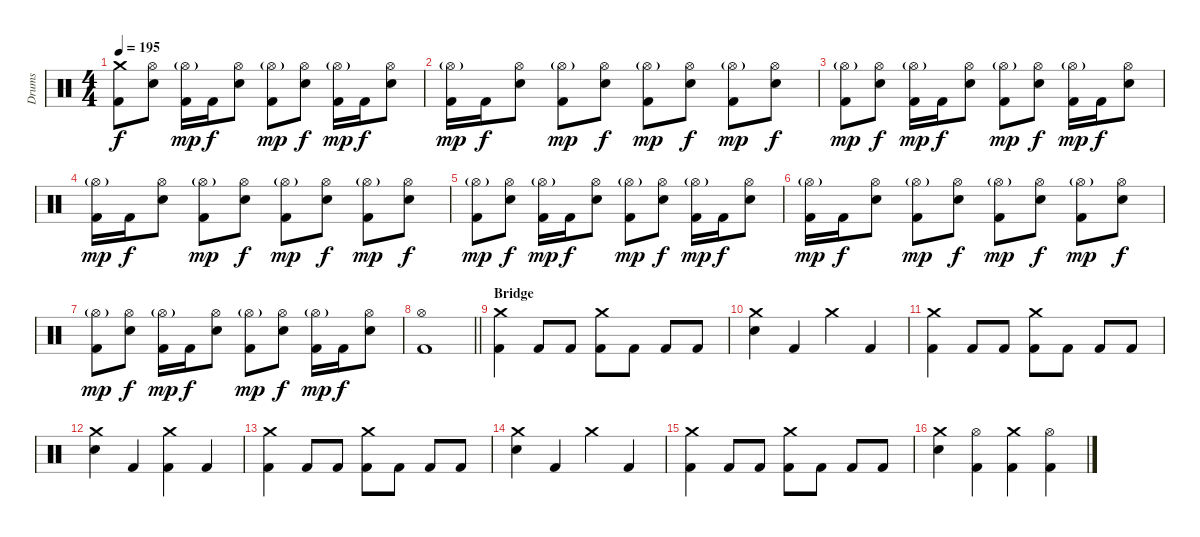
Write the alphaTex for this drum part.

\track ("Drums" "Drums") {instrument percussion}
\staff {score}
\articulation defaults
\ts (4 4)
\tempo 195
\clef neutral
\ks c
("Crash medium (hit)" "Kick (hit) 2").8{dy f} ("Hi-Hat (open)" "Snare (hit) 2").8 ("Hi-Hat (open)"{g} "Kick (hit) 2").16{dy mp} "Kick (hit) 2".16{dy f} ("Hi-Hat (open)" "Snare (hit) 2").8 ("Hi-Hat (open)"{g} "Kick (hit) 2").8{dy mp} ("Hi-Hat (open)" "Snare (hit) 2").8{dy f} ("Hi-Hat (open)"{g} "Kick (hit) 2").16{dy mp} "Kick (hit) 2".16{dy f} ("Hi-Hat (open)" "Snare (hit) 2").8 |
("Hi-Hat (open)"{g} "Kick (hit) 2").16{dy mp} "Kick (hit) 2".16{dy f} ("Hi-Hat (open)" "Snare (hit) 2").8 ("Hi-Hat (open)"{g} "Kick (hit) 2").8{dy mp} ("Hi-Hat (open)" "Snare (hit) 2").8{dy f} ("Hi-Hat (open)"{g} "Kick (hit) 2").8{dy mp} ("Hi-Hat (open)" "Snare (hit) 2").8{dy f} ("Hi-Hat (open)"{g} "Kick (hit) 2").8{dy mp} ("Hi-Hat (open)" "Snare (hit) 2").8{dy f} |
("Hi-Hat (open)"{g} "Kick (hit) 2").8{dy mp} ("Hi-Hat (open)" "Snare (hit) 2").8{dy f} ("Hi-Hat (open)"{g} "Kick (hit) 2").16{dy mp} "Kick (hit) 2".16{dy f} ("Hi-Hat (open)" "Snare (hit) 2").8 ("Hi-Hat (open)"{g} "Kick (hit) 2").8{dy mp} ("Hi-Hat (open)" "Snare (hit) 2").8{dy f} ("Hi-Hat (open)"{g} "Kick (hit) 2").16{dy mp} "Kick (hit) 2".16{dy f} ("Hi-Hat (open)" "Snare (hit) 2").8 |
("Hi-Hat (open)"{g} "Kick (hit) 2").16{dy mp} "Kick (hit) 2".16{dy f} ("Hi-Hat (open)" "Snare (hit) 2").8 ("Hi-Hat (open)"{g} "Kick (hit) 2").8{dy mp} ("Hi-Hat (open)" "Snare (hit) 2").8{dy f} ("Hi-Hat (open)"{g} "Kick (hit) 2").8{dy mp} ("Hi-Hat (open)" "Snare (hit) 2").8{dy f} ("Hi-Hat (open)"{g} "Kick (hit) 2").8{dy mp} ("Hi-Hat (open)" "Snare (hit) 2").8{dy f} |
("Hi-Hat (open)"{g} "Kick (hit) 2").8{dy mp} ("Hi-Hat (open)" "Snare (hit) 2").8{dy f} ("Hi-Hat (open)"{g} "Kick (hit) 2").16{dy mp} "Kick (hit) 2".16{dy f} ("Hi-Hat (open)" "Snare (hit) 2").8 ("Hi-Hat (open)"{g} "Kick (hit) 2").8{dy mp} ("Hi-Hat (open)" "Snare (hit) 2").8{dy f} ("Hi-Hat (open)"{g} "Kick (hit) 2").16{dy mp} "Kick (hit) 2".16{dy f} ("Hi-Hat (open)" "Snare (hit) 2").8 |
("Hi-Hat (open)"{g} "Kick (hit) 2").16{dy mp} "Kick (hit) 2".16{dy f} ("Hi-Hat (open)" "Snare (hit) 2").8 ("Hi-Hat (open)"{g} "Kick (hit) 2").8{dy mp} ("Hi-Hat (open)" "Snare (hit) 2").8{dy f} ("Hi-Hat (open)"{g} "Kick (hit) 2").8{dy mp} ("Hi-Hat (open)" "Snare (hit) 2").8{dy f} ("Hi-Hat (open)"{g} "Kick (hit) 2").8{dy mp} ("Hi-Hat (open)" "Snare (hit) 2").8{dy f} |
("Hi-Hat (open)"{g} "Kick (hit) 2").8{dy mp} ("Hi-Hat (open)" "Snare (hit) 2").8{dy f} ("Hi-Hat (open)"{g} "Kick (hit) 2").16{dy mp} "Kick (hit) 2".16{dy f} ("Hi-Hat (open)" "Snare (hit) 2").8 ("Hi-Hat (open)"{g} "Kick (hit) 2").8{dy mp} ("Hi-Hat (open)" "Snare (hit) 2").8{dy f} ("Hi-Hat (open)"{g} "Kick (hit) 2").16{dy mp} "Kick (hit) 2".16{dy f} ("Hi-Hat (open)" "Snare (hit) 2").8 |
\barLineRight lightlight
("Hi-Hat (open)" "Kick (hit) 2").1 |
\section ("" "Bridge")
("Crash medium (hit)" "Kick (hit) 2").4 "Kick (hit) 2".8 "Kick (hit) 2".8 ("Crash medium (hit)" "Kick (hit) 2").8 "Kick (hit) 2".8 "Kick (hit) 2".8 "Kick (hit) 2".8 |
("Crash medium (hit)" "Snare (hit) 2").4 "Kick (hit) 2".4 "Crash medium (hit)".4 "Kick (hit) 2".4 |
("Crash medium (hit)" "Kick (hit) 2").4 "Kick (hit) 2".8 "Kick (hit) 2".8 ("Crash medium (hit)" "Kick (hit) 2").8 "Kick (hit) 2".8 "Kick (hit) 2".8 "Kick (hit) 2".8 |
("Crash medium (hit)" "Snare (hit) 2").4 "Kick (hit) 2".4 ("Crash medium (hit)" "Kick (hit) 2").4 "Kick (hit) 2".4 |
("Crash medium (hit)" "Kick (hit) 2").4 "Kick (hit) 2".8 "Kick (hit) 2".8 ("Crash medium (hit)" "Kick (hit) 2").8 "Kick (hit) 2".8 "Kick (hit) 2".8 "Kick (hit) 2".8 |
("Crash medium (hit)" "Snare (hit) 2").4 "Kick (hit) 2".4 "Crash medium (hit)".4 "Kick (hit) 2".4 |
("Crash medium (hit)" "Kick (hit) 2").4 "Kick (hit) 2".8 "Kick (hit) 2".8 ("Crash medium (hit)" "Kick (hit) 2").8 "Kick (hit) 2".8 "Kick (hit) 2".8 "Kick (hit) 2".8 |
("Crash medium (hit)" "Snare (hit) 2").4 ("Hi-Hat (open)" "Kick (hit) 2").4 ("Crash medium (hit)" "Kick (hit) 2").4 ("Hi-Hat (open)" "Kick (hit) 2").4
